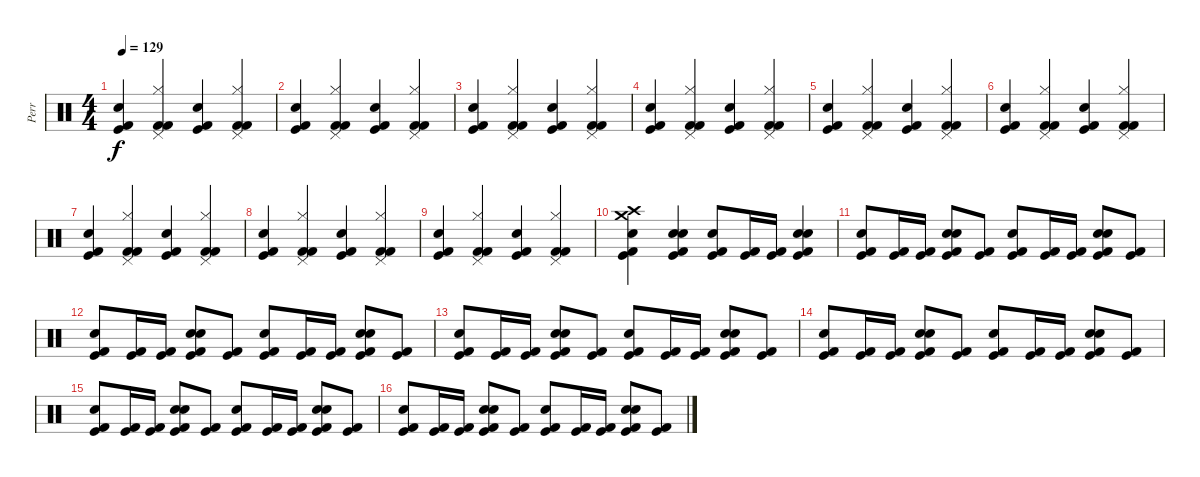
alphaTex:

\track ("Perr" "Perr") {instrument percussion}
\staff {score}
\articulation defaults
\ts (4 4)
\tempo 129
\clef neutral
\ks c
("Kick (hit) 2" "Kick (hit)" "Electric Snare (hit)").4{dy f} ("Kick (hit) 2" "Kick (hit) 2" "Hi-Hat (closed)" "Pedal Hi-Hat (hit)").4 ("Kick (hit) 2" "Kick (hit)" "Electric Snare (hit)").4 ("Kick (hit) 2" "Kick (hit) 2" "Hi-Hat (closed)" "Pedal Hi-Hat (hit)").4 |
("Kick (hit) 2" "Kick (hit)" "Electric Snare (hit)").4 ("Kick (hit) 2" "Kick (hit) 2" "Hi-Hat (closed)" "Pedal Hi-Hat (hit)").4 ("Kick (hit) 2" "Kick (hit)" "Electric Snare (hit)").4 ("Kick (hit) 2" "Kick (hit) 2" "Hi-Hat (closed)" "Pedal Hi-Hat (hit)").4 |
("Kick (hit) 2" "Kick (hit)" "Electric Snare (hit)").4 ("Kick (hit) 2" "Kick (hit) 2" "Hi-Hat (closed)" "Pedal Hi-Hat (hit)").4 ("Kick (hit) 2" "Kick (hit)" "Electric Snare (hit)").4 ("Kick (hit) 2" "Kick (hit) 2" "Hi-Hat (closed)" "Pedal Hi-Hat (hit)").4 |
("Kick (hit) 2" "Kick (hit)" "Electric Snare (hit)").4 ("Kick (hit) 2" "Kick (hit) 2" "Hi-Hat (closed)" "Pedal Hi-Hat (hit)").4 ("Kick (hit) 2" "Kick (hit)" "Electric Snare (hit)").4 ("Kick (hit) 2" "Kick (hit) 2" "Hi-Hat (closed)" "Pedal Hi-Hat (hit)").4 |
("Kick (hit) 2" "Kick (hit)" "Electric Snare (hit)").4 ("Kick (hit) 2" "Kick (hit) 2" "Hi-Hat (closed)" "Pedal Hi-Hat (hit)").4 ("Kick (hit) 2" "Kick (hit)" "Electric Snare (hit)").4 ("Kick (hit) 2" "Kick (hit) 2" "Hi-Hat (closed)" "Pedal Hi-Hat (hit)").4 |
("Kick (hit) 2" "Kick (hit)" "Electric Snare (hit)").4 ("Kick (hit) 2" "Kick (hit) 2" "Hi-Hat (closed)" "Pedal Hi-Hat (hit)").4 ("Kick (hit) 2" "Kick (hit)" "Electric Snare (hit)").4 ("Kick (hit) 2" "Kick (hit) 2" "Hi-Hat (closed)" "Pedal Hi-Hat (hit)").4 |
("Kick (hit) 2" "Kick (hit)" "Electric Snare (hit)").4 ("Kick (hit) 2" "Kick (hit) 2" "Hi-Hat (closed)" "Pedal Hi-Hat (hit)").4 ("Kick (hit) 2" "Kick (hit)" "Electric Snare (hit)").4 ("Kick (hit) 2" "Kick (hit) 2" "Hi-Hat (closed)" "Pedal Hi-Hat (hit)").4 |
("Kick (hit) 2" "Kick (hit)" "Electric Snare (hit)").4 ("Kick (hit) 2" "Kick (hit) 2" "Hi-Hat (closed)" "Pedal Hi-Hat (hit)").4 ("Kick (hit) 2" "Kick (hit)" "Electric Snare (hit)").4 ("Kick (hit) 2" "Kick (hit) 2" "Hi-Hat (closed)" "Pedal Hi-Hat (hit)").4 |
("Kick (hit) 2" "Kick (hit)" "Electric Snare (hit)").4 ("Kick (hit) 2" "Kick (hit) 2" "Hi-Hat (closed)" "Pedal Hi-Hat (hit)").4 ("Kick (hit) 2" "Kick (hit)" "Electric Snare (hit)").4 ("Kick (hit) 2" "Kick (hit) 2" "Hi-Hat (closed)" "Pedal Hi-Hat (hit)").4 |
("Crash medium (hit)" "Kick (hit) 2" "Crash high (hit)" "Electric Snare (hit)" "Kick (hit)").4 ("Kick (hit)" "Kick (hit) 2" "Hand Clap (hit)" "Electric Snare (hit)").4 ("Kick (hit) 2" "Kick (hit)" "Electric Snare (hit)").8 ("Kick (hit)" "Kick (hit) 2").16 ("Kick (hit)" "Kick (hit) 2").16 ("Kick (hit)" "Kick (hit) 2" "Hand Clap (hit)" "Electric Snare (hit)").4 |
("Kick (hit) 2" "Kick (hit)" "Electric Snare (hit)").8 ("Kick (hit)" "Kick (hit) 2").16 ("Kick (hit)" "Kick (hit) 2").16 ("Kick (hit)" "Kick (hit) 2" "Hand Clap (hit)" "Electric Snare (hit)").8 ("Kick (hit) 2" "Kick (hit)").8 ("Kick (hit) 2" "Kick (hit)" "Electric Snare (hit)").8 ("Kick (hit)" "Kick (hit) 2").16 ("Kick (hit)" "Kick (hit) 2").16 ("Kick (hit)" "Kick (hit) 2" "Hand Clap (hit)" "Electric Snare (hit)").8 ("Kick (hit) 2" "Kick (hit)").8 |
("Kick (hit) 2" "Kick (hit)" "Electric Snare (hit)").8 ("Kick (hit)" "Kick (hit) 2").16 ("Kick (hit)" "Kick (hit) 2").16 ("Kick (hit)" "Kick (hit) 2" "Hand Clap (hit)" "Electric Snare (hit)").8 ("Kick (hit) 2" "Kick (hit)").8 ("Kick (hit) 2" "Kick (hit)" "Electric Snare (hit)").8 ("Kick (hit)" "Kick (hit) 2").16 ("Kick (hit)" "Kick (hit) 2").16 ("Kick (hit)" "Kick (hit) 2" "Hand Clap (hit)" "Electric Snare (hit)").8 ("Kick (hit) 2" "Kick (hit)").8 |
("Kick (hit) 2" "Kick (hit)" "Electric Snare (hit)").8 ("Kick (hit)" "Kick (hit) 2").16 ("Kick (hit)" "Kick (hit) 2").16 ("Kick (hit)" "Kick (hit) 2" "Hand Clap (hit)" "Electric Snare (hit)").8 ("Kick (hit) 2" "Kick (hit)").8 ("Kick (hit) 2" "Kick (hit)" "Electric Snare (hit)").8 ("Kick (hit)" "Kick (hit) 2").16 ("Kick (hit)" "Kick (hit) 2").16 ("Kick (hit)" "Kick (hit) 2" "Hand Clap (hit)" "Electric Snare (hit)").8 ("Kick (hit) 2" "Kick (hit)").8 |
("Kick (hit) 2" "Kick (hit)" "Electric Snare (hit)").8 ("Kick (hit)" "Kick (hit) 2").16 ("Kick (hit)" "Kick (hit) 2").16 ("Kick (hit)" "Kick (hit) 2" "Hand Clap (hit)" "Electric Snare (hit)").8 ("Kick (hit) 2" "Kick (hit)").8 ("Kick (hit) 2" "Kick (hit)" "Electric Snare (hit)").8 ("Kick (hit)" "Kick (hit) 2").16 ("Kick (hit)" "Kick (hit) 2").16 ("Kick (hit)" "Kick (hit) 2" "Hand Clap (hit)" "Electric Snare (hit)").8 ("Kick (hit) 2" "Kick (hit)").8 |
("Kick (hit) 2" "Kick (hit)" "Electric Snare (hit)").8 ("Kick (hit)" "Kick (hit) 2").16 ("Kick (hit)" "Kick (hit) 2").16 ("Kick (hit)" "Kick (hit) 2" "Hand Clap (hit)" "Electric Snare (hit)").8 ("Kick (hit) 2" "Kick (hit)").8 ("Kick (hit) 2" "Kick (hit)" "Electric Snare (hit)").8 ("Kick (hit)" "Kick (hit) 2").16 ("Kick (hit)" "Kick (hit) 2").16 ("Kick (hit)" "Kick (hit) 2" "Hand Clap (hit)" "Electric Snare (hit)").8 ("Kick (hit) 2" "Kick (hit)").8 |
("Kick (hit) 2" "Kick (hit)" "Electric Snare (hit)").8 ("Kick (hit)" "Kick (hit) 2").16 ("Kick (hit)" "Kick (hit) 2").16 ("Kick (hit)" "Kick (hit) 2" "Hand Clap (hit)" "Electric Snare (hit)").8 ("Kick (hit) 2" "Kick (hit)").8 ("Kick (hit) 2" "Kick (hit)" "Electric Snare (hit)").8 ("Kick (hit)" "Kick (hit) 2").16 ("Kick (hit)" "Kick (hit) 2").16 ("Kick (hit)" "Kick (hit) 2" "Hand Clap (hit)" "Electric Snare (hit)").8 ("Kick (hit) 2" "Kick (hit)").8
